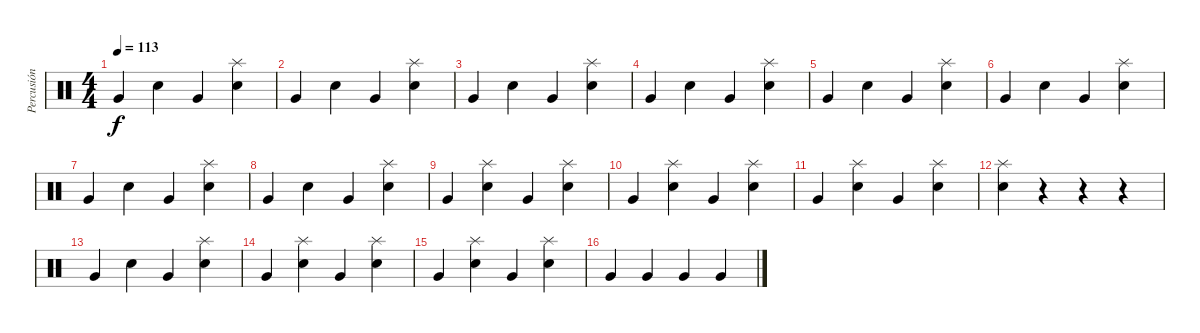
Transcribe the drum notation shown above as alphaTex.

\track ("Percusión" "Percusión") {instrument percussion}
\staff {score}
\articulation defaults
\ts (4 4)
\tempo 113
\clef neutral
\ks c "Very Low Tom (hit)".4{dy f} "Snare (hit) 2".4 "Very Low Tom (hit)".4
("Snare (hit) 2" "Splash (hit)").4 |
"Very Low Tom (hit)".4 "Snare (hit) 2".4 "Very Low Tom (hit)".4 ("Snare (hit) 2" "Splash (hit)").4 |
"Very Low Tom (hit)".4 "Snare (hit) 2".4 "Very Low Tom (hit)".4 ("Snare (hit) 2" "Splash (hit)").4 |
"Very Low Tom (hit)".4 "Snare (hit) 2".4 "Very Low Tom (hit)".4 ("Snare (hit) 2" "Splash (hit)").4 |
"Very Low Tom (hit)".4 "Snare (hit) 2".4 "Very Low Tom (hit)".4 ("Snare (hit) 2" "Splash (hit)").4 |
"Very Low Tom (hit)".4 "Snare (hit) 2".4 "Very Low Tom (hit)".4 ("Snare (hit) 2" "Splash (hit)").4 |
"Very Low Tom (hit)".4 "Snare (hit) 2".4 "Very Low Tom (hit)".4 ("Snare (hit) 2" "Splash (hit)").4 |
"Very Low Tom (hit)".4 "Snare (hit) 2".4 "Very Low Tom (hit)".4 ("Snare (hit) 2" "Splash (hit)").4 |
"Very Low Tom (hit)".4 ("Snare (hit) 2" "Splash (hit)").4 "Very Low Tom (hit)".4 ("Snare (hit) 2" "Splash (hit)").4 |
"Very Low Tom (hit)".4 ("Snare (hit) 2" "Splash (hit)").4 "Very Low Tom (hit)".4 ("Snare (hit) 2" "Splash (hit)").4 |
"Very Low Tom (hit)".4 ("Snare (hit) 2" "Splash (hit)").4 "Very Low Tom (hit)".4 ("Snare (hit) 2" "Splash (hit)").4 |
("Snare (hit) 2" "Splash (hit)").4 r.4 r.4 r.4 |
"Very Low Tom (hit)".4 "Snare (hit) 2".4 "Very Low Tom (hit)".4 ("Snare (hit) 2" "Splash (hit)").4 |
"Very Low Tom (hit)".4 ("Snare (hit) 2" "Splash (hit)").4 "Very Low Tom (hit)".4 ("Snare (hit) 2" "Splash (hit)").4 |
"Very Low Tom (hit)".4 ("Snare (hit) 2" "Splash (hit)").4 "Very Low Tom (hit)".4 ("Snare (hit) 2" "Splash (hit)").4 |
"Very Low Tom (hit)".4 "Very Low Tom (hit)".4 "Very Low Tom (hit)".4 "Very Low Tom (hit)".4
